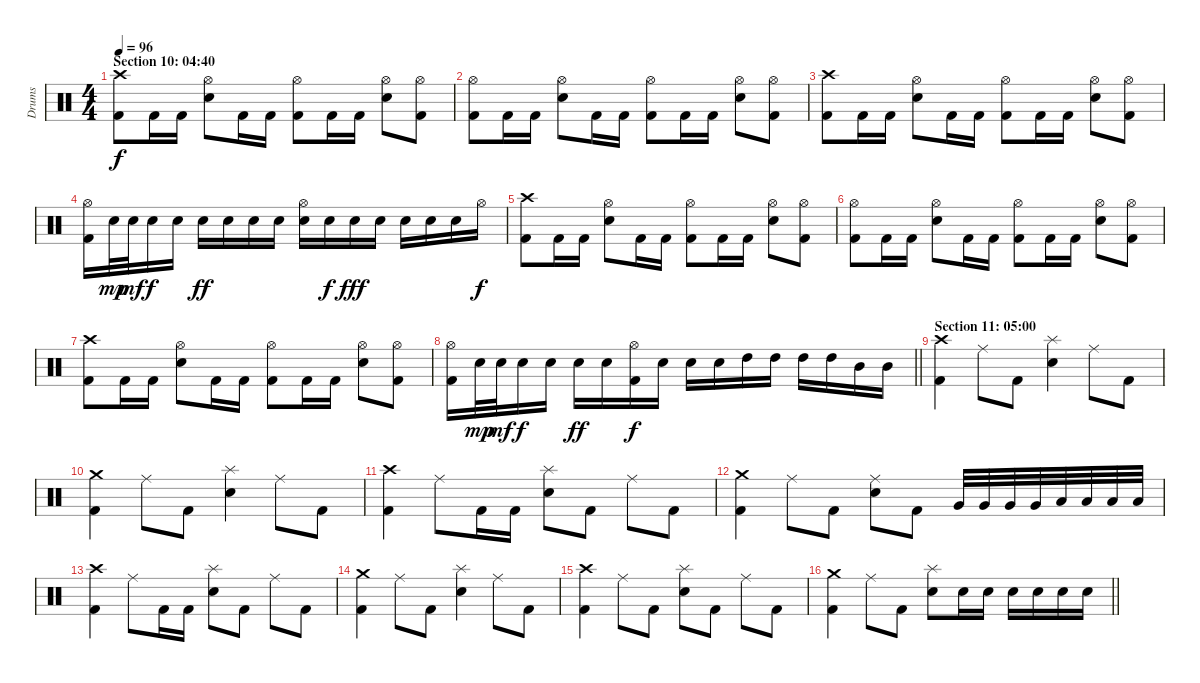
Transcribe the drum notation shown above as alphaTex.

\track ("Drums" "Drums") {instrument percussion}
\staff {score}
\articulation defaults
\ts (4 4)
\section ("" "Section 10: 04:40")
\tempo 96
\clef neutral
\ks c
("Crash high (hit)" "Kick (hit) 2").8{dy f} "Kick (hit) 2".16 "Kick (hit) 2".16 ("Hi-Hat (open)" "Electric Snare (hit)").8 "Kick (hit) 2".16 "Kick (hit) 2".16 ("Hi-Hat (open)" "Kick (hit) 2").8 "Kick (hit) 2".16 "Kick (hit) 2".16 ("Hi-Hat (open)" "Electric Snare (hit)").8 ("Hi-Hat (open)" "Kick (hit) 2").8 |
("Hi-Hat (open)" "Kick (hit) 2").8 "Kick (hit) 2".16 "Kick (hit) 2".16 ("Hi-Hat (open)" "Electric Snare (hit)").8 "Kick (hit) 2".16 "Kick (hit) 2".16 ("Hi-Hat (open)" "Kick (hit) 2").8 "Kick (hit) 2".16 "Kick (hit) 2".16 ("Hi-Hat (open)" "Electric Snare (hit)").8 ("Hi-Hat (open)" "Kick (hit) 2").8 |
("Crash high (hit)" "Kick (hit) 2").8 "Kick (hit) 2".16 "Kick (hit) 2".16 ("Hi-Hat (open)" "Electric Snare (hit)").8 "Kick (hit) 2".16 "Kick (hit) 2".16 ("Hi-Hat (open)" "Kick (hit) 2").8 "Kick (hit) 2".16 "Kick (hit) 2".16 ("Hi-Hat (open)" "Electric Snare (hit)").8 ("Hi-Hat (open)" "Kick (hit) 2").8 |
("Hi-Hat (open)" "Kick (hit) 2").16 "Electric Snare (hit)".32{dy mp} "Electric Snare (hit)".32{dy mf} "Electric Snare (hit)".16{dy f} "Electric Snare (hit)".16 "Electric Snare (hit)".16{dy ff} "Electric Snare (hit)".16 "Electric Snare (hit)".16 "Electric Snare (hit)".16 ("Hi-Hat (open)" "Electric Snare (hit)").16 "Electric Snare (hit)".16{dy f} "Electric Snare (hit)".16{dy fff} "Electric Snare (hit)".16 "Electric Snare (hit)".16 "Electric Snare (hit)".16 "Electric Snare (hit)".16 "Hi-Hat (open)".16{dy f} |
("Crash high (hit)" "Kick (hit) 2").8 "Kick (hit) 2".16 "Kick (hit) 2".16 ("Hi-Hat (open)" "Electric Snare (hit)").8 "Kick (hit) 2".16 "Kick (hit) 2".16 ("Hi-Hat (open)" "Kick (hit) 2").8 "Kick (hit) 2".16 "Kick (hit) 2".16 ("Hi-Hat (open)" "Electric Snare (hit)").8 ("Hi-Hat (open)" "Kick (hit) 2").8 |
("Hi-Hat (open)" "Kick (hit) 2").8 "Kick (hit) 2".16 "Kick (hit) 2".16 ("Hi-Hat (open)" "Electric Snare (hit)").8 "Kick (hit) 2".16 "Kick (hit) 2".16 ("Hi-Hat (open)" "Kick (hit) 2").8 "Kick (hit) 2".16 "Kick (hit) 2".16 ("Hi-Hat (open)" "Electric Snare (hit)").8 ("Hi-Hat (open)" "Kick (hit) 2").8 |
("Crash high (hit)" "Kick (hit) 2").8 "Kick (hit) 2".16 "Kick (hit) 2".16 ("Hi-Hat (open)" "Electric Snare (hit)").8 "Kick (hit) 2".16 "Kick (hit) 2".16 ("Hi-Hat (open)" "Kick (hit) 2").8 "Kick (hit) 2".16 "Kick (hit) 2".16 ("Hi-Hat (open)" "Electric Snare (hit)").8 ("Hi-Hat (open)" "Kick (hit) 2").8 |
\barLineRight lightlight
("Hi-Hat (open)" "Kick (hit) 2").16 "Electric Snare (hit)".32{dy mp} "Electric Snare (hit)".32{dy mf} "Electric Snare (hit)".16{dy f} "Electric Snare (hit)".16 "Electric Snare (hit)".16{dy ff} "Electric Snare (hit)".16 ("Hi-Hat (open)" "Kick (hit) 2").16{dy f} "Electric Snare (hit)".16 "Electric Snare (hit)".16 "Electric Snare (hit)".16 "High Tom (hit)".16 "High Tom (hit)".16 "High Tom (hit)".16 "High Tom (hit)".16 "Mid Tom (hit)".16 "Mid Tom (hit)".16 |
\section ("" "Section 11: 05:00")
("Crash high (hit)" "Kick (hit) 2").4 "Ride (middle)".8 "Kick (hit) 2".8 ("Splash (hit)" "Electric Snare (hit)").4 "Ride (middle)".8 "Kick (hit) 2".8 |
("Crash medium (hit)" "Kick (hit) 2").4 "Ride (middle)".8 "Kick (hit) 2".8 ("Splash (hit)" "Electric Snare (hit)").4 "Ride (middle)".8 "Kick (hit) 2".8 |
("Crash high (hit)" "Kick (hit) 2").4 "Ride (middle)".8 "Kick (hit) 2".16 "Kick (hit) 2".16 ("Splash (hit)" "Electric Snare (hit)").8 "Kick (hit) 2".8 "Ride (middle)".8 "Kick (hit) 2".8 |
("Crash medium (hit)" "Kick (hit) 2").4 "Ride (middle)".8 "Kick (hit) 2".8 ("Ride (middle)" "Electric Snare (hit)").8 "Kick (hit) 2".8 "Very Low Tom (hit)".32 "Very Low Tom (hit)".32 "Very Low Tom (hit)".32 "Very Low Tom (hit)".32 "Low Floor Tom (hit)".32 "Low Floor Tom (hit)".32 "Low Floor Tom (hit)".32 "Low Floor Tom (hit)".32 |
("Crash high (hit)" "Kick (hit) 2").4 "Ride (middle)".8 "Kick (hit) 2".16 "Kick (hit) 2".16 ("Splash (hit)" "Electric Snare (hit)").8 "Kick (hit) 2".8 "Ride (middle)".8 "Kick (hit) 2".8 |
("Crash medium (hit)" "Kick (hit) 2").4 "Ride (middle)".8 "Kick (hit) 2".8 ("Splash (hit)" "Electric Snare (hit)").4 "Ride (middle)".8 "Kick (hit) 2".8 |
("Crash high (hit)" "Kick (hit) 2").4 "Ride (middle)".8 "Kick (hit) 2".8 ("Splash (hit)" "Electric Snare (hit)").8 "Kick (hit) 2".8 "Ride (middle)".8 "Kick (hit) 2".8 |
\barLineRight lightlight
("Crash medium (hit)" "Kick (hit) 2").4 "Ride (middle)".8 "Kick (hit) 2".8 ("Splash (hit)" "Electric Snare (hit)").8 "Electric Snare (hit)".16 "Electric Snare (hit)".16 "Electric Snare (hit)".16 "Electric Snare (hit)".16 "Electric Snare (hit)".16 "Electric Snare (hit)".16
